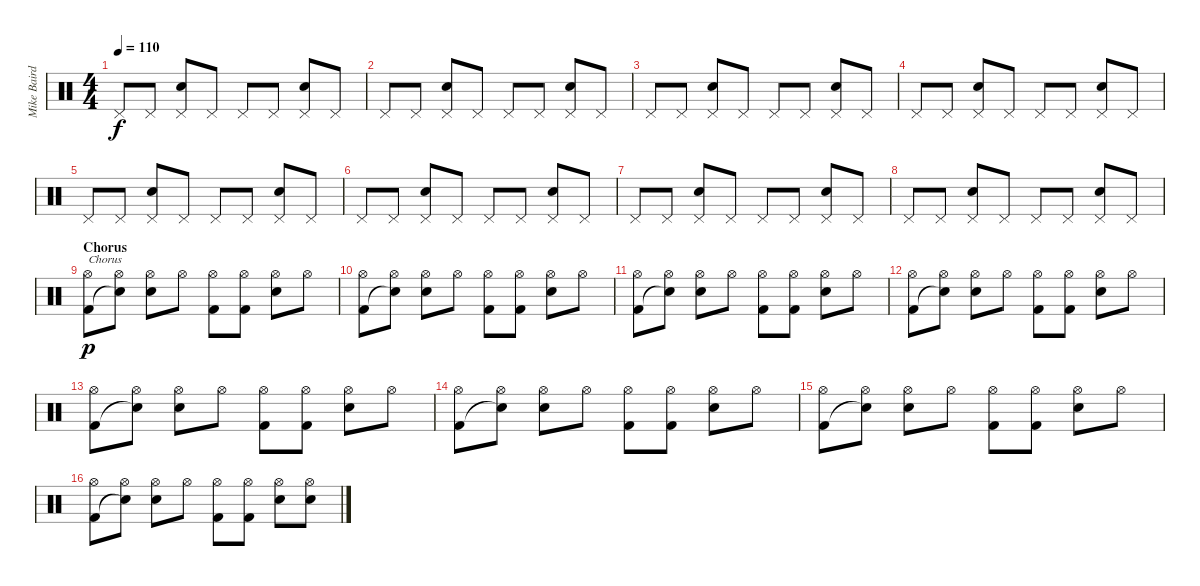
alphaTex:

\track ("Mike Baird [drums]" "Mike Baird") {instrument percussion}
\staff {score}
\articulation defaults
\ts (4 4)
\tempo 110
\clef neutral
\ks c "Pedal Hi-Hat (hit)".8{dy f} "Pedal Hi-Hat (hit)".8
("Pedal Hi-Hat (hit)" "Electric Snare (hit)").8 "Pedal Hi-Hat (hit)".8 "Pedal Hi-Hat (hit)".8 "Pedal Hi-Hat (hit)".8 ("Pedal Hi-Hat (hit)" "Electric Snare (hit)").8 "Pedal Hi-Hat (hit)".8 |
"Pedal Hi-Hat (hit)".8 "Pedal Hi-Hat (hit)".8 ("Pedal Hi-Hat (hit)" "Electric Snare (hit)").8 "Pedal Hi-Hat (hit)".8 "Pedal Hi-Hat (hit)".8 "Pedal Hi-Hat (hit)".8 ("Pedal Hi-Hat (hit)" "Electric Snare (hit)").8 "Pedal Hi-Hat (hit)".8 |
"Pedal Hi-Hat (hit)".8 "Pedal Hi-Hat (hit)".8 ("Pedal Hi-Hat (hit)" "Electric Snare (hit)").8 "Pedal Hi-Hat (hit)".8 "Pedal Hi-Hat (hit)".8 "Pedal Hi-Hat (hit)".8 ("Pedal Hi-Hat (hit)" "Electric Snare (hit)").8 "Pedal Hi-Hat (hit)".8 |
"Pedal Hi-Hat (hit)".8 "Pedal Hi-Hat (hit)".8 ("Pedal Hi-Hat (hit)" "Electric Snare (hit)").8 "Pedal Hi-Hat (hit)".8 "Pedal Hi-Hat (hit)".8 "Pedal Hi-Hat (hit)".8 ("Pedal Hi-Hat (hit)" "Electric Snare (hit)").8 "Pedal Hi-Hat (hit)".8 |
"Pedal Hi-Hat (hit)".8 "Pedal Hi-Hat (hit)".8 ("Pedal Hi-Hat (hit)" "Electric Snare (hit)").8 "Pedal Hi-Hat (hit)".8 "Pedal Hi-Hat (hit)".8 "Pedal Hi-Hat (hit)".8 ("Pedal Hi-Hat (hit)" "Electric Snare (hit)").8 "Pedal Hi-Hat (hit)".8 |
"Pedal Hi-Hat (hit)".8 "Pedal Hi-Hat (hit)".8 ("Pedal Hi-Hat (hit)" "Electric Snare (hit)").8 "Pedal Hi-Hat (hit)".8 "Pedal Hi-Hat (hit)".8 "Pedal Hi-Hat (hit)".8 ("Pedal Hi-Hat (hit)" "Electric Snare (hit)").8 "Pedal Hi-Hat (hit)".8 |
"Pedal Hi-Hat (hit)".8 "Pedal Hi-Hat (hit)".8 ("Pedal Hi-Hat (hit)" "Electric Snare (hit)").8 "Pedal Hi-Hat (hit)".8 "Pedal Hi-Hat (hit)".8 "Pedal Hi-Hat (hit)".8 ("Pedal Hi-Hat (hit)" "Electric Snare (hit)").8 "Pedal Hi-Hat (hit)".8 |
"Pedal Hi-Hat (hit)".8 "Pedal Hi-Hat (hit)".8 ("Pedal Hi-Hat (hit)" "Electric Snare (hit)").8 "Pedal Hi-Hat (hit)".8 "Pedal Hi-Hat (hit)".8 "Pedal Hi-Hat (hit)".8 ("Pedal Hi-Hat (hit)" "Electric Snare (hit)").8 "Pedal Hi-Hat (hit)".8 |
\section ("" "Chorus")
("Hi-Hat (open)" "Kick (hit) 2").8{txt "Chorus" dy p} ("Hi-Hat (open)" "Snare (hit)"{t}).8 ("Hi-Hat (open)" "Electric Snare (hit)").8 "Hi-Hat (open)".8 ("Hi-Hat (open)" "Kick (hit) 2").8 ("Hi-Hat (open)" "Kick (hit) 2").8 ("Hi-Hat (open)" "Electric Snare (hit)").8 "Hi-Hat (open)".8 |
("Hi-Hat (open)" "Kick (hit) 2").8 ("Hi-Hat (open)" "Snare (hit)"{t}).8 ("Hi-Hat (open)" "Electric Snare (hit)").8 "Hi-Hat (open)".8 ("Hi-Hat (open)" "Kick (hit) 2").8 ("Hi-Hat (open)" "Kick (hit) 2").8 ("Hi-Hat (open)" "Electric Snare (hit)").8 "Hi-Hat (open)".8 |
("Hi-Hat (open)" "Kick (hit) 2").8 ("Hi-Hat (open)" "Snare (hit)"{t}).8 ("Hi-Hat (open)" "Electric Snare (hit)").8 "Hi-Hat (open)".8 ("Hi-Hat (open)" "Kick (hit) 2").8 ("Hi-Hat (open)" "Kick (hit) 2").8 ("Hi-Hat (open)" "Electric Snare (hit)").8 "Hi-Hat (open)".8 |
("Hi-Hat (open)" "Kick (hit) 2").8 ("Hi-Hat (open)" "Snare (hit)"{t}).8 ("Hi-Hat (open)" "Electric Snare (hit)").8 "Hi-Hat (open)".8 ("Hi-Hat (open)" "Kick (hit) 2").8 ("Hi-Hat (open)" "Kick (hit) 2").8 ("Hi-Hat (open)" "Electric Snare (hit)").8 "Hi-Hat (open)".8 |
("Hi-Hat (open)" "Kick (hit) 2").8 ("Hi-Hat (open)" "Snare (hit)"{t}).8 ("Hi-Hat (open)" "Electric Snare (hit)").8 "Hi-Hat (open)".8 ("Hi-Hat (open)" "Kick (hit) 2").8 ("Hi-Hat (open)" "Kick (hit) 2").8 ("Hi-Hat (open)" "Electric Snare (hit)").8 "Hi-Hat (open)".8 |
("Hi-Hat (open)" "Kick (hit) 2").8 ("Hi-Hat (open)" "Snare (hit)"{t}).8 ("Hi-Hat (open)" "Electric Snare (hit)").8 "Hi-Hat (open)".8 ("Hi-Hat (open)" "Kick (hit) 2").8 ("Hi-Hat (open)" "Kick (hit) 2").8 ("Hi-Hat (open)" "Electric Snare (hit)").8 "Hi-Hat (open)".8 |
("Hi-Hat (open)" "Kick (hit) 2").8 ("Hi-Hat (open)" "Snare (hit)"{t}).8 ("Hi-Hat (open)" "Electric Snare (hit)").8 "Hi-Hat (open)".8 ("Hi-Hat (open)" "Kick (hit) 2").8 ("Hi-Hat (open)" "Kick (hit) 2").8 ("Hi-Hat (open)" "Electric Snare (hit)").8 "Hi-Hat (open)".8 |
("Hi-Hat (open)" "Kick (hit) 2").8 ("Hi-Hat (open)" "Snare (hit)"{t}).8 ("Hi-Hat (open)" "Electric Snare (hit)").8 "Hi-Hat (open)".8 ("Hi-Hat (open)" "Kick (hit) 2").8 ("Hi-Hat (open)" "Kick (hit) 2").8 ("Hi-Hat (open)" "Electric Snare (hit)").8 ("Hi-Hat (open)" "Electric Snare (hit)").8
